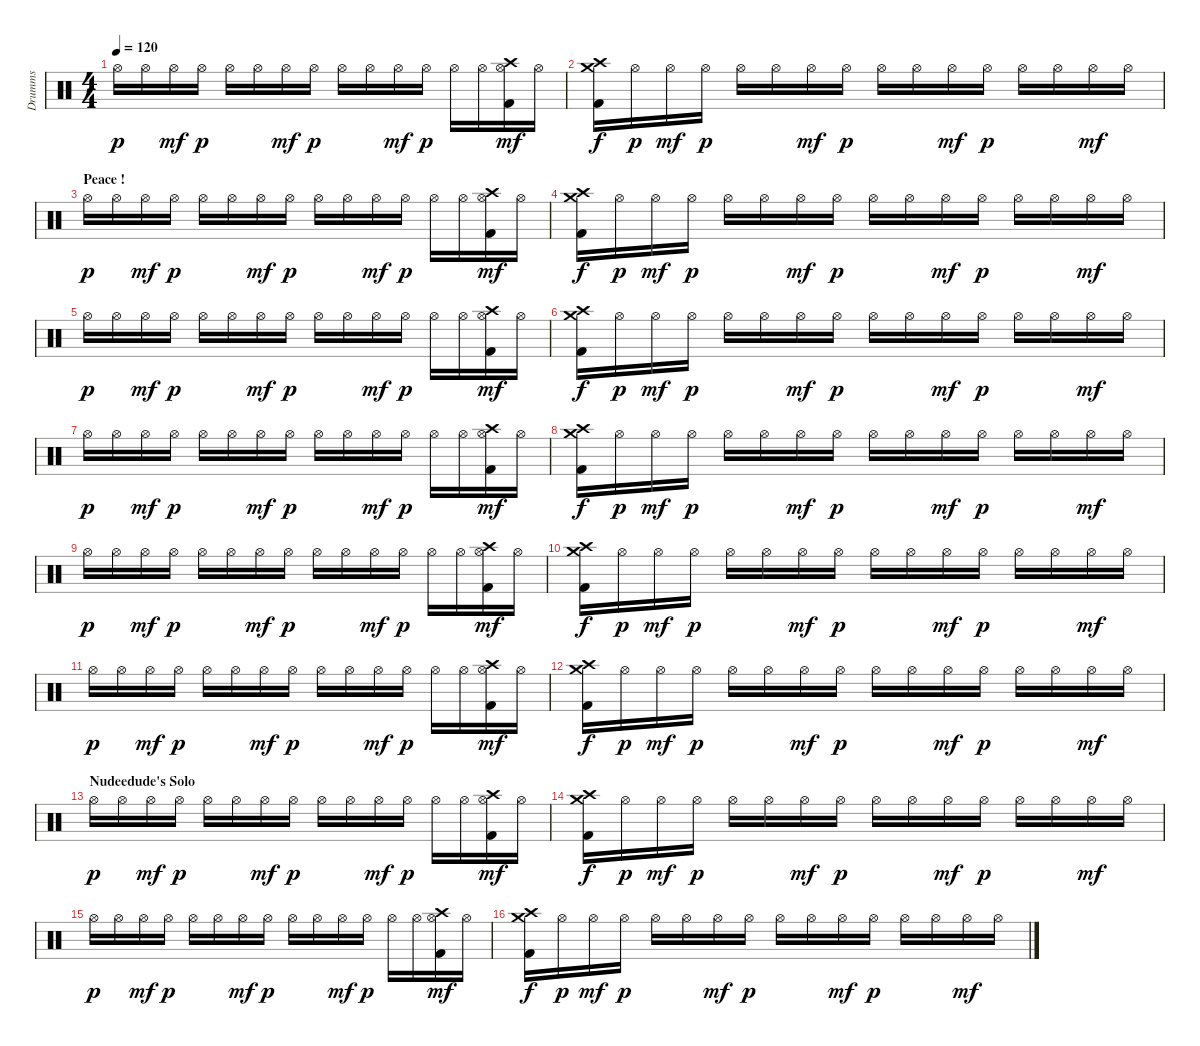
\track ("Drumms" "Drumms") {instrument percussion}
\staff {score}
\articulation defaults
\ts (4 4)
\tempo 120
\clef neutral
\ks c "Hi-Hat (open)".16{dy p} "Hi-Hat (open)".16 "Hi-Hat (open)".16{dy mf} "Hi-Hat (open)".16{dy p} "Hi-Hat (open)".16 "Hi-Hat (open)".16 "Hi-Hat (open)".16{dy mf} "Hi-Hat (open)".16{dy p} "Hi-Hat (open)".16 "Hi-Hat (open)".16 "Hi-Hat (open)".16{dy mf} "Hi-Hat (open)".16{dy p} "Hi-Hat (open)".16 "Hi-Hat (open)".16
("Crash high (hit)" "Hi-Hat (open)" "Kick (hit) 2").16{dy mf} "Hi-Hat (open)".16 |
("Crash high (hit)" "Crash medium (hit)" "Kick (hit) 2").16{dy f} "Hi-Hat (open)".16{dy p} "Hi-Hat (open)".16{dy mf} "Hi-Hat (open)".16{dy p} "Hi-Hat (open)".16 "Hi-Hat (open)".16 "Hi-Hat (open)".16{dy mf} "Hi-Hat (open)".16{dy p} "Hi-Hat (open)".16 "Hi-Hat (open)".16 "Hi-Hat (open)".16{dy mf} "Hi-Hat (open)".16{dy p} "Hi-Hat (open)".16 "Hi-Hat (open)".16 "Hi-Hat (open)".16{dy mf} "Hi-Hat (open)".16 |
\section ("" "Peace !")
"Hi-Hat (open)".16{dy p} "Hi-Hat (open)".16 "Hi-Hat (open)".16{dy mf} "Hi-Hat (open)".16{dy p} "Hi-Hat (open)".16 "Hi-Hat (open)".16 "Hi-Hat (open)".16{dy mf} "Hi-Hat (open)".16{dy p} "Hi-Hat (open)".16 "Hi-Hat (open)".16 "Hi-Hat (open)".16{dy mf} "Hi-Hat (open)".16{dy p} "Hi-Hat (open)".16 "Hi-Hat (open)".16 ("Crash high (hit)" "Hi-Hat (open)" "Kick (hit) 2").16{dy mf} "Hi-Hat (open)".16 |
("Crash high (hit)" "Crash medium (hit)" "Kick (hit) 2").16{dy f} "Hi-Hat (open)".16{dy p} "Hi-Hat (open)".16{dy mf} "Hi-Hat (open)".16{dy p} "Hi-Hat (open)".16 "Hi-Hat (open)".16 "Hi-Hat (open)".16{dy mf} "Hi-Hat (open)".16{dy p} "Hi-Hat (open)".16 "Hi-Hat (open)".16 "Hi-Hat (open)".16{dy mf} "Hi-Hat (open)".16{dy p} "Hi-Hat (open)".16 "Hi-Hat (open)".16 "Hi-Hat (open)".16{dy mf} "Hi-Hat (open)".16 |
"Hi-Hat (open)".16{dy p} "Hi-Hat (open)".16 "Hi-Hat (open)".16{dy mf} "Hi-Hat (open)".16{dy p} "Hi-Hat (open)".16 "Hi-Hat (open)".16 "Hi-Hat (open)".16{dy mf} "Hi-Hat (open)".16{dy p} "Hi-Hat (open)".16 "Hi-Hat (open)".16 "Hi-Hat (open)".16{dy mf} "Hi-Hat (open)".16{dy p} "Hi-Hat (open)".16 "Hi-Hat (open)".16 ("Crash high (hit)" "Hi-Hat (open)" "Kick (hit) 2").16{dy mf} "Hi-Hat (open)".16 |
("Crash high (hit)" "Crash medium (hit)" "Kick (hit) 2").16{dy f} "Hi-Hat (open)".16{dy p} "Hi-Hat (open)".16{dy mf} "Hi-Hat (open)".16{dy p} "Hi-Hat (open)".16 "Hi-Hat (open)".16 "Hi-Hat (open)".16{dy mf} "Hi-Hat (open)".16{dy p} "Hi-Hat (open)".16 "Hi-Hat (open)".16 "Hi-Hat (open)".16{dy mf} "Hi-Hat (open)".16{dy p} "Hi-Hat (open)".16 "Hi-Hat (open)".16 "Hi-Hat (open)".16{dy mf} "Hi-Hat (open)".16 |
"Hi-Hat (open)".16{dy p} "Hi-Hat (open)".16 "Hi-Hat (open)".16{dy mf} "Hi-Hat (open)".16{dy p} "Hi-Hat (open)".16 "Hi-Hat (open)".16 "Hi-Hat (open)".16{dy mf} "Hi-Hat (open)".16{dy p} "Hi-Hat (open)".16 "Hi-Hat (open)".16 "Hi-Hat (open)".16{dy mf} "Hi-Hat (open)".16{dy p} "Hi-Hat (open)".16 "Hi-Hat (open)".16 ("Crash high (hit)" "Hi-Hat (open)" "Kick (hit) 2").16{dy mf} "Hi-Hat (open)".16 |
("Crash high (hit)" "Crash medium (hit)" "Kick (hit) 2").16{dy f} "Hi-Hat (open)".16{dy p} "Hi-Hat (open)".16{dy mf} "Hi-Hat (open)".16{dy p} "Hi-Hat (open)".16 "Hi-Hat (open)".16 "Hi-Hat (open)".16{dy mf} "Hi-Hat (open)".16{dy p} "Hi-Hat (open)".16 "Hi-Hat (open)".16 "Hi-Hat (open)".16{dy mf} "Hi-Hat (open)".16{dy p} "Hi-Hat (open)".16 "Hi-Hat (open)".16 "Hi-Hat (open)".16{dy mf} "Hi-Hat (open)".16 |
"Hi-Hat (open)".16{dy p} "Hi-Hat (open)".16 "Hi-Hat (open)".16{dy mf} "Hi-Hat (open)".16{dy p} "Hi-Hat (open)".16 "Hi-Hat (open)".16 "Hi-Hat (open)".16{dy mf} "Hi-Hat (open)".16{dy p} "Hi-Hat (open)".16 "Hi-Hat (open)".16 "Hi-Hat (open)".16{dy mf} "Hi-Hat (open)".16{dy p} "Hi-Hat (open)".16 "Hi-Hat (open)".16 ("Crash high (hit)" "Hi-Hat (open)" "Kick (hit) 2").16{dy mf} "Hi-Hat (open)".16 |
("Crash high (hit)" "Crash medium (hit)" "Kick (hit) 2").16{dy f} "Hi-Hat (open)".16{dy p} "Hi-Hat (open)".16{dy mf} "Hi-Hat (open)".16{dy p} "Hi-Hat (open)".16 "Hi-Hat (open)".16 "Hi-Hat (open)".16{dy mf} "Hi-Hat (open)".16{dy p} "Hi-Hat (open)".16 "Hi-Hat (open)".16 "Hi-Hat (open)".16{dy mf} "Hi-Hat (open)".16{dy p} "Hi-Hat (open)".16 "Hi-Hat (open)".16 "Hi-Hat (open)".16{dy mf} "Hi-Hat (open)".16 |
"Hi-Hat (open)".16{dy p} "Hi-Hat (open)".16 "Hi-Hat (open)".16{dy mf} "Hi-Hat (open)".16{dy p} "Hi-Hat (open)".16 "Hi-Hat (open)".16 "Hi-Hat (open)".16{dy mf} "Hi-Hat (open)".16{dy p} "Hi-Hat (open)".16 "Hi-Hat (open)".16 "Hi-Hat (open)".16{dy mf} "Hi-Hat (open)".16{dy p} "Hi-Hat (open)".16 "Hi-Hat (open)".16 ("Crash high (hit)" "Hi-Hat (open)" "Kick (hit) 2").16{dy mf} "Hi-Hat (open)".16 |
("Crash high (hit)" "Crash medium (hit)" "Kick (hit) 2").16{dy f} "Hi-Hat (open)".16{dy p} "Hi-Hat (open)".16{dy mf} "Hi-Hat (open)".16{dy p} "Hi-Hat (open)".16 "Hi-Hat (open)".16 "Hi-Hat (open)".16{dy mf} "Hi-Hat (open)".16{dy p} "Hi-Hat (open)".16 "Hi-Hat (open)".16 "Hi-Hat (open)".16{dy mf} "Hi-Hat (open)".16{dy p} "Hi-Hat (open)".16 "Hi-Hat (open)".16 "Hi-Hat (open)".16{dy mf} "Hi-Hat (open)".16 |
\section ("" "Nudeedude's Solo")
"Hi-Hat (open)".16{dy p} "Hi-Hat (open)".16 "Hi-Hat (open)".16{dy mf} "Hi-Hat (open)".16{dy p} "Hi-Hat (open)".16 "Hi-Hat (open)".16 "Hi-Hat (open)".16{dy mf} "Hi-Hat (open)".16{dy p} "Hi-Hat (open)".16 "Hi-Hat (open)".16 "Hi-Hat (open)".16{dy mf} "Hi-Hat (open)".16{dy p} "Hi-Hat (open)".16 "Hi-Hat (open)".16 ("Crash high (hit)" "Hi-Hat (open)" "Kick (hit) 2").16{dy mf} "Hi-Hat (open)".16 |
("Crash high (hit)" "Crash medium (hit)" "Kick (hit) 2").16{dy f} "Hi-Hat (open)".16{dy p} "Hi-Hat (open)".16{dy mf} "Hi-Hat (open)".16{dy p} "Hi-Hat (open)".16 "Hi-Hat (open)".16 "Hi-Hat (open)".16{dy mf} "Hi-Hat (open)".16{dy p} "Hi-Hat (open)".16 "Hi-Hat (open)".16 "Hi-Hat (open)".16{dy mf} "Hi-Hat (open)".16{dy p} "Hi-Hat (open)".16 "Hi-Hat (open)".16 "Hi-Hat (open)".16{dy mf} "Hi-Hat (open)".16 |
"Hi-Hat (open)".16{dy p} "Hi-Hat (open)".16 "Hi-Hat (open)".16{dy mf} "Hi-Hat (open)".16{dy p} "Hi-Hat (open)".16 "Hi-Hat (open)".16 "Hi-Hat (open)".16{dy mf} "Hi-Hat (open)".16{dy p} "Hi-Hat (open)".16 "Hi-Hat (open)".16 "Hi-Hat (open)".16{dy mf} "Hi-Hat (open)".16{dy p} "Hi-Hat (open)".16 "Hi-Hat (open)".16 ("Crash high (hit)" "Hi-Hat (open)" "Kick (hit) 2").16{dy mf} "Hi-Hat (open)".16 |
("Crash high (hit)" "Crash medium (hit)" "Kick (hit) 2").16{dy f} "Hi-Hat (open)".16{dy p} "Hi-Hat (open)".16{dy mf} "Hi-Hat (open)".16{dy p} "Hi-Hat (open)".16 "Hi-Hat (open)".16 "Hi-Hat (open)".16{dy mf} "Hi-Hat (open)".16{dy p} "Hi-Hat (open)".16 "Hi-Hat (open)".16 "Hi-Hat (open)".16{dy mf} "Hi-Hat (open)".16{dy p} "Hi-Hat (open)".16 "Hi-Hat (open)".16 "Hi-Hat (open)".16{dy mf} "Hi-Hat (open)".16
